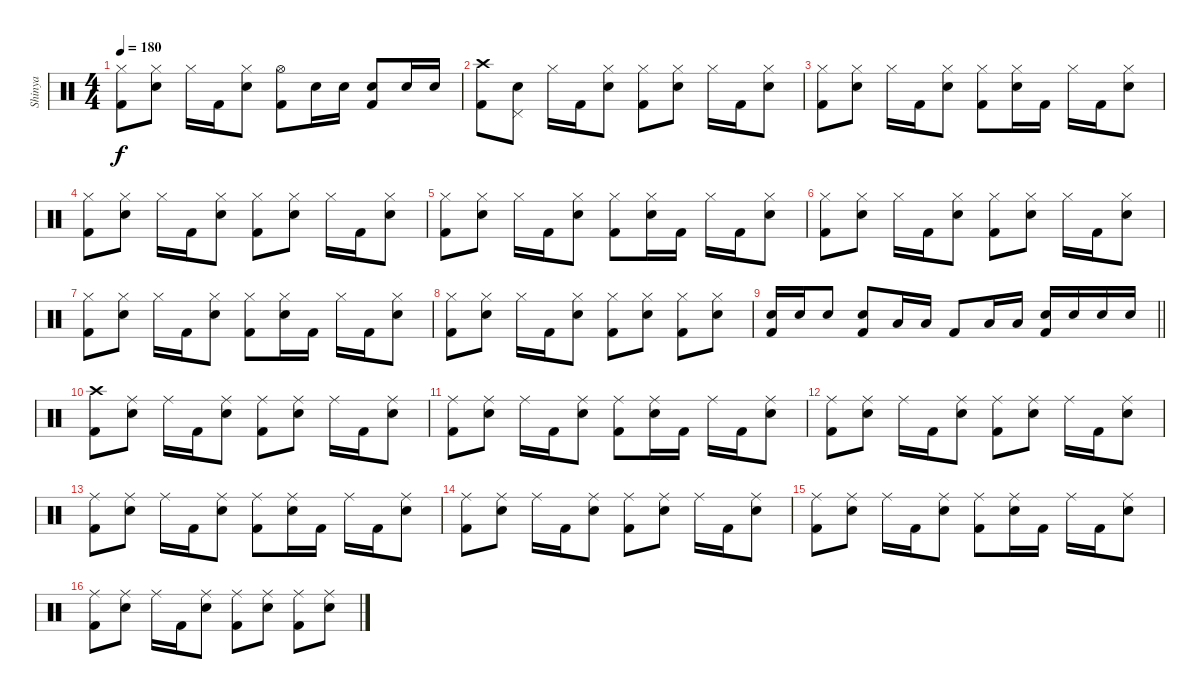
\track ("Shinya" "Shinya") {instrument percussion}
\staff {score}
\articulation defaults
\ts (4 4)
\tempo 180
\clef neutral
\ks c
("Hi-Hat (closed)" "Kick (hit) 2").8{dy f} ("Hi-Hat (closed)" "Electric Snare (hit)").8 "Hi-Hat (closed)".16 "Kick (hit) 2".16 ("Hi-Hat (closed)" "Electric Snare (hit)").8 ("Hi-Hat (open)" "Kick (hit) 2").8 "Electric Snare (hit)".16 "Electric Snare (hit)".16 ("Electric Snare (hit)" "Kick (hit) 2").8 "Electric Snare (hit)".16 "Electric Snare (hit)".16 |
("Crash high (hit)" "Kick (hit) 2").8 ("Pedal Hi-Hat (hit)" "Electric Snare (hit)").8 "Hi-Hat (closed)".16 "Kick (hit) 2".16 ("Hi-Hat (closed)" "Electric Snare (hit)").8 ("Hi-Hat (closed)" "Kick (hit) 2").8 ("Hi-Hat (closed)" "Electric Snare (hit)").8 "Hi-Hat (closed)".16 "Kick (hit) 2".16 ("Hi-Hat (closed)" "Electric Snare (hit)").8 |
("Hi-Hat (closed)" "Kick (hit) 2").8 ("Hi-Hat (closed)" "Electric Snare (hit)").8 "Hi-Hat (closed)".16 "Kick (hit) 2".16 ("Hi-Hat (closed)" "Electric Snare (hit)").8 ("Hi-Hat (closed)" "Kick (hit) 2").8 ("Hi-Hat (closed)" "Electric Snare (hit)").16 "Kick (hit) 2".16 "Hi-Hat (closed)".16 "Kick (hit) 2".16 ("Hi-Hat (closed)" "Electric Snare (hit)").8 |
("Hi-Hat (closed)" "Kick (hit) 2").8 ("Hi-Hat (closed)" "Electric Snare (hit)").8 "Hi-Hat (closed)".16 "Kick (hit) 2".16 ("Hi-Hat (closed)" "Electric Snare (hit)").8 ("Hi-Hat (closed)" "Kick (hit) 2").8 ("Hi-Hat (closed)" "Electric Snare (hit)").8 "Hi-Hat (closed)".16 "Kick (hit) 2".16 ("Hi-Hat (closed)" "Electric Snare (hit)").8 |
("Hi-Hat (closed)" "Kick (hit) 2").8 ("Hi-Hat (closed)" "Electric Snare (hit)").8 "Hi-Hat (closed)".16 "Kick (hit) 2".16 ("Hi-Hat (closed)" "Electric Snare (hit)").8 ("Hi-Hat (closed)" "Kick (hit) 2").8 ("Hi-Hat (closed)" "Electric Snare (hit)").16 "Kick (hit) 2".16 "Hi-Hat (closed)".16 "Kick (hit) 2".16 ("Hi-Hat (closed)" "Electric Snare (hit)").8 |
("Hi-Hat (closed)" "Kick (hit) 2").8 ("Hi-Hat (closed)" "Electric Snare (hit)").8 "Hi-Hat (closed)".16 "Kick (hit) 2".16 ("Hi-Hat (closed)" "Electric Snare (hit)").8 ("Hi-Hat (closed)" "Kick (hit) 2").8 ("Hi-Hat (closed)" "Electric Snare (hit)").8 "Hi-Hat (closed)".16 "Kick (hit) 2".16 ("Hi-Hat (closed)" "Electric Snare (hit)").8 |
("Hi-Hat (closed)" "Kick (hit) 2").8 ("Hi-Hat (closed)" "Electric Snare (hit)").8 "Hi-Hat (closed)".16 "Kick (hit) 2".16 ("Hi-Hat (closed)" "Electric Snare (hit)").8 ("Hi-Hat (closed)" "Kick (hit) 2").8 ("Hi-Hat (closed)" "Electric Snare (hit)").16 "Kick (hit) 2".16 "Hi-Hat (closed)".16 "Kick (hit) 2".16 ("Hi-Hat (closed)" "Electric Snare (hit)").8 |
("Hi-Hat (closed)" "Kick (hit) 2").8 ("Hi-Hat (closed)" "Electric Snare (hit)").8 "Hi-Hat (closed)".16 "Kick (hit) 2".16 ("Hi-Hat (closed)" "Electric Snare (hit)").8 ("Hi-Hat (closed)" "Kick (hit) 2").8 ("Hi-Hat (closed)" "Electric Snare (hit)").8 ("Hi-Hat (closed)" "Kick (hit) 2").8 ("Hi-Hat (closed)" "Electric Snare (hit)").8 |
\barLineRight lightlight
("Electric Snare (hit)" "Kick (hit) 2").16 "Electric Snare (hit)".16 "Electric Snare (hit)".8 ("Electric Snare (hit)" "Kick (hit) 2").8 "Low Tom (hit)".16 "Low Tom (hit)".16 "Kick (hit) 2".8 "Low Tom (hit)".16 "Low Tom (hit)".16 ("Electric Snare (hit)" "Kick (hit) 2").16 "Electric Snare (hit)".16 "Electric Snare (hit)".16 "Electric Snare (hit)".16 |
("Crash high (hit)" "Kick (hit) 2").8 ("Ride (middle)" "Electric Snare (hit)").8 "Ride (middle)".16 "Kick (hit) 2".16 ("Ride (middle)" "Electric Snare (hit)").8 ("Ride (middle)" "Kick (hit) 2").8 ("Ride (middle)" "Electric Snare (hit)").8 "Ride (middle)".16 "Kick (hit) 2".16 ("Ride (middle)" "Electric Snare (hit)").8 |
("Ride (middle)" "Kick (hit) 2").8 ("Ride (middle)" "Electric Snare (hit)").8 "Ride (middle)".16 "Kick (hit) 2".16 ("Ride (middle)" "Electric Snare (hit)").8 ("Ride (middle)" "Kick (hit) 2").8 ("Ride (middle)" "Electric Snare (hit)").16 "Kick (hit) 2".16 "Ride (middle)".16 "Kick (hit) 2".16 ("Ride (middle)" "Electric Snare (hit)").8 |
("Ride (middle)" "Kick (hit) 2").8 ("Ride (middle)" "Electric Snare (hit)").8 "Ride (middle)".16 "Kick (hit) 2".16 ("Ride (middle)" "Electric Snare (hit)").8 ("Ride (middle)" "Kick (hit) 2").8 ("Ride (middle)" "Electric Snare (hit)").8 "Ride (middle)".16 "Kick (hit) 2".16 ("Ride (middle)" "Electric Snare (hit)").8 |
("Ride (middle)" "Kick (hit) 2").8 ("Ride (middle)" "Electric Snare (hit)").8 "Ride (middle)".16 "Kick (hit) 2".16 ("Ride (middle)" "Electric Snare (hit)").8 ("Ride (middle)" "Kick (hit) 2").8 ("Ride (middle)" "Electric Snare (hit)").16 "Kick (hit) 2".16 "Ride (middle)".16 "Kick (hit) 2".16 ("Ride (middle)" "Electric Snare (hit)").8 |
("Ride (middle)" "Kick (hit) 2").8 ("Ride (middle)" "Electric Snare (hit)").8 "Ride (middle)".16 "Kick (hit) 2".16 ("Ride (middle)" "Electric Snare (hit)").8 ("Ride (middle)" "Kick (hit) 2").8 ("Ride (middle)" "Electric Snare (hit)").8 "Ride (middle)".16 "Kick (hit) 2".16 ("Ride (middle)" "Electric Snare (hit)").8 |
("Ride (middle)" "Kick (hit) 2").8 ("Ride (middle)" "Electric Snare (hit)").8 "Ride (middle)".16 "Kick (hit) 2".16 ("Ride (middle)" "Electric Snare (hit)").8 ("Ride (middle)" "Kick (hit) 2").8 ("Ride (middle)" "Electric Snare (hit)").16 "Kick (hit) 2".16 "Ride (middle)".16 "Kick (hit) 2".16 ("Ride (middle)" "Electric Snare (hit)").8 |
("Ride (middle)" "Kick (hit) 2").8 ("Ride (middle)" "Electric Snare (hit)").8 "Ride (middle)".16 "Kick (hit) 2".16 ("Ride (middle)" "Electric Snare (hit)").8 ("Ride (middle)" "Kick (hit) 2").8 ("Ride (middle)" "Electric Snare (hit)").8 ("Ride (middle)" "Kick (hit) 2").8 ("Ride (middle)" "Electric Snare (hit)").8
